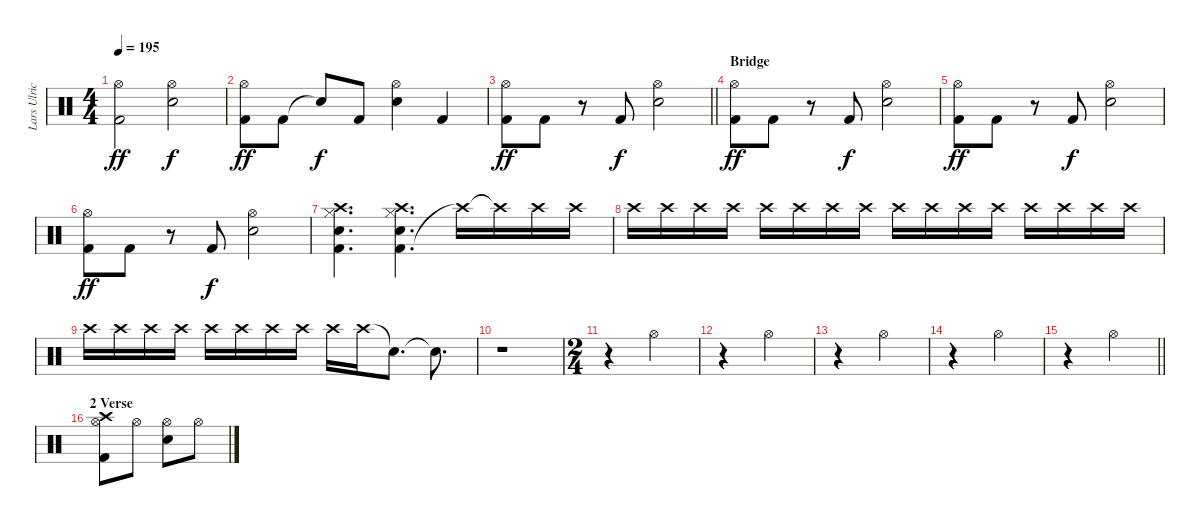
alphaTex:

\track ("Lars Ulrich" "Lars Ulric") {instrument percussion}
\staff {score}
\articulation defaults
\ts (4 4)
\tempo 195
\clef neutral
\ks c
("Kick (hit) 2" "Hi-Hat (open)").2{dy ff} ("Snare (hit) 2" "Hi-Hat (open)").2{dy f} |
("Kick (hit) 2" "Hi-Hat (open)").8{dy ff} "Kick (hit) 2".8 "Snare (hit)"{t}.8{dy f} "Kick (hit) 2".8 ("Snare (hit) 2" "Hi-Hat (open)").4 "Kick (hit) 2".4 |
\barLineRight lightlight
("Kick (hit) 2" "Hi-Hat (open)").8{dy ff} "Kick (hit) 2".8 r.8 "Kick (hit) 2".8{dy f} ("Snare (hit) 2" "Hi-Hat (open)").2 |
\section ("" "Bridge")
("Kick (hit) 2" "Hi-Hat (open)").8{dy ff} "Kick (hit) 2".8 r.8 "Kick (hit) 2".8{dy f} ("Snare (hit) 2" "Hi-Hat (open)").2 |
("Kick (hit) 2" "Hi-Hat (open)").8{dy ff} "Kick (hit) 2".8 r.8 "Kick (hit) 2".8{dy f} ("Snare (hit) 2" "Hi-Hat (open)").2 |
("Kick (hit) 2" "Hi-Hat (open)").8{dy ff} "Kick (hit) 2".8 r.8 "Kick (hit) 2".8{dy f} ("Snare (hit) 2" "Hi-Hat (open)").2 |
("Kick (hit) 2" "Snare (hit) 2" "Hi-Hat (closed)" "Crash high (hit)").4{d} ("Kick (hit) 2" "Snare (hit) 2" "Hi-Hat (closed)" "Crash high (hit)").4{d} "Crash high (hit)"{t}.16 "Crash high (hit)"{t}.16 "Crash high (hit)".16 "Crash high (hit)".16 |
"Crash high (hit)".16 "Crash high (hit)".16 "Crash high (hit)".16 "Crash high (hit)".16 "Crash high (hit)".16 "Crash high (hit)".16 "Crash high (hit)".16 "Crash high (hit)".16 "Crash high (hit)".16 "Crash high (hit)".16 "Crash high (hit)".16 "Crash high (hit)".16 "Crash high (hit)".16 "Crash high (hit)".16 "Crash high (hit)".16 "Crash high (hit)".16 |
"Crash high (hit)".16 "Crash high (hit)".16 "Crash high (hit)".16 "Crash high (hit)".16 "Crash high (hit)".16 "Crash high (hit)".16 "Crash high (hit)".16 "Crash high (hit)".16 "Crash high (hit)".16 "Crash high (hit)".16 "Snare (hit)"{t}.8{d} "Snare (hit)"{t}.8{d} |
r.1 |
\ts (2 4)
r.4 "Hi-Hat (open)".4 |
r.4 "Hi-Hat (open)".4 |
r.4 "Hi-Hat (open)".4 |
r.4 "Hi-Hat (open)".4 |
\barLineRight lightlight
r.4 "Hi-Hat (open)".4 |
\section ("" "2 Verse")
("Kick (hit) 2" "Hi-Hat (open)" "Crash high (hit)").8 "Hi-Hat (open)".8 ("Snare (hit) 2" "Hi-Hat (open)").8 "Hi-Hat (open)".8
